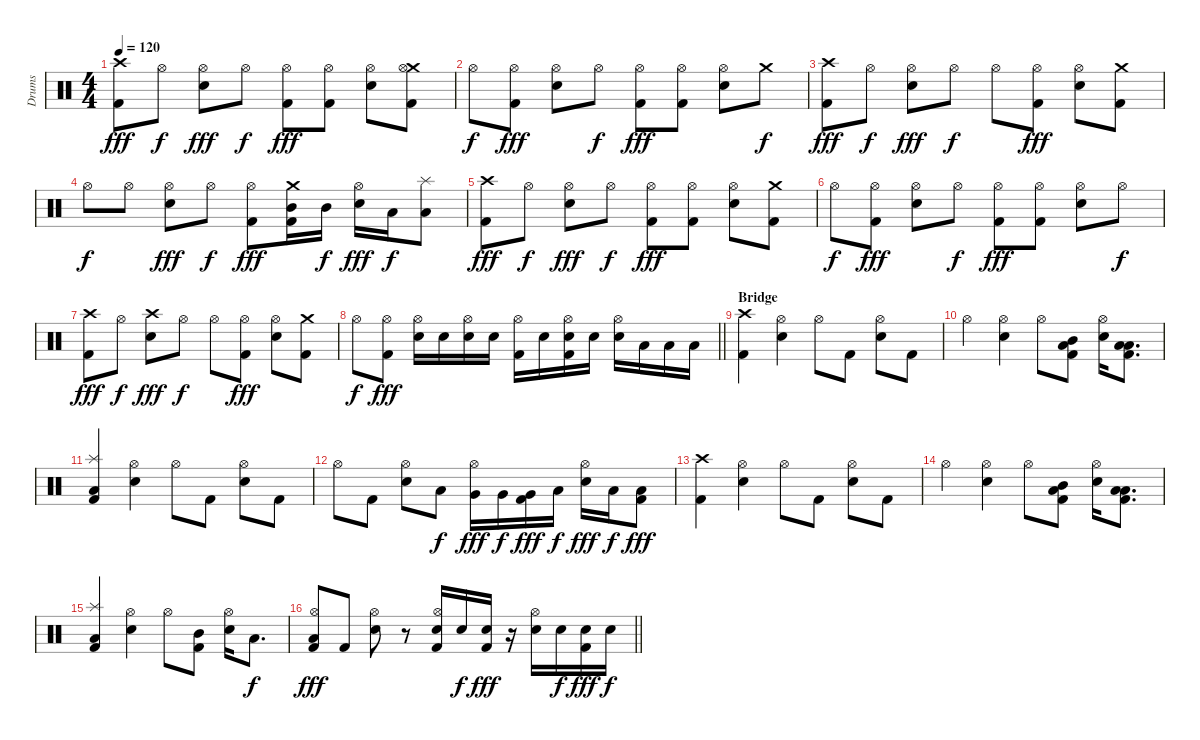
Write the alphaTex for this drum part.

\track ("Drums" "Drums") {instrument percussion}
\staff {score}
\articulation defaults
\ts (4 4)
\tempo 120
\clef neutral
\ks c
("Crash high (hit)" "Kick (hit) 2").8{dy fff} "Hi-Hat (open)".8{dy f} ("Hi-Hat (open)" "Snare (hit) 2").8{dy fff} "Hi-Hat (open)".8{dy f} ("Hi-Hat (open)" "Kick (hit) 2").8{dy fff} ("Hi-Hat (open)" "Kick (hit) 2").8 ("Hi-Hat (open)" "Snare (hit) 2").8 ("Crash medium (hit)" "Hi-Hat (open)" "Kick (hit) 2").8 |
"Hi-Hat (open)".8{dy f} ("Hi-Hat (open)" "Kick (hit) 2").8{dy fff} ("Hi-Hat (open)" "Snare (hit) 2").8 "Hi-Hat (open)".8{dy f} ("Hi-Hat (open)" "Kick (hit) 2").8{dy fff} ("Hi-Hat (open)" "Kick (hit) 2").8 ("Hi-Hat (open)" "Snare (hit) 2").8 "Crash medium (hit)".8{dy f} |
("Crash high (hit)" "Kick (hit) 2").8{dy fff} "Hi-Hat (open)".8{dy f} ("Hi-Hat (open)" "Snare (hit) 2").8{dy fff} "Hi-Hat (open)".8{dy f} "Hi-Hat (open)".8 ("Hi-Hat (open)" "Kick (hit) 2").8{dy fff} ("Hi-Hat (open)" "Snare (hit) 2").8 ("Crash medium (hit)" "Kick (hit) 2").8 |
"Hi-Hat (open)".8{dy f} "Hi-Hat (open)".8 ("Hi-Hat (open)" "Snare (hit) 2").8{dy fff} "Hi-Hat (open)".8{dy f} ("Hi-Hat (open)" "Kick (hit) 2").8{dy fff} ("Crash medium (hit)" "Mid Tom (hit)" "Kick (hit) 2").16 "Mid Tom (hit)".16{dy f} ("Hi-Hat (open)" "Snare (hit) 2").16{dy fff} "Low Tom (hit)".16{dy f} ("Splash (hit)" "Low Tom (hit)").8 |
("Crash high (hit)" "Kick (hit) 2").8{dy fff} "Hi-Hat (open)".8{dy f} ("Hi-Hat (open)" "Snare (hit) 2").8{dy fff} "Hi-Hat (open)".8{dy f} ("Hi-Hat (open)" "Kick (hit) 2").8{dy fff} ("Hi-Hat (open)" "Kick (hit) 2").8 ("Hi-Hat (open)" "Snare (hit) 2").8 ("Crash medium (hit)" "Kick (hit) 2").8 |
"Hi-Hat (open)".8{dy f} ("Hi-Hat (open)" "Kick (hit) 2").8{dy fff} ("Hi-Hat (open)" "Snare (hit) 2").8 "Hi-Hat (open)".8{dy f} ("Hi-Hat (open)" "Kick (hit) 2").8{dy fff} ("Hi-Hat (open)" "Kick (hit) 2").8 ("Hi-Hat (open)" "Snare (hit) 2").8 "Hi-Hat (open)".8{dy f} |
("Crash high (hit)" "Kick (hit) 2").8{dy fff} "Hi-Hat (open)".8{dy f} ("Crash high (hit)" "Snare (hit) 2").8{dy fff} "Hi-Hat (open)".8{dy f} "Hi-Hat (open)".8 ("Hi-Hat (open)" "Kick (hit) 2").8{dy fff} ("Hi-Hat (open)" "Snare (hit) 2").8 ("Crash medium (hit)" "Kick (hit) 2").8 |
\barLineRight lightlight "Hi-Hat (open)".8{dy f}
("Hi-Hat (open)" "Kick (hit) 2").8{dy fff} ("Hi-Hat (open)" "Snare (hit) 2").16 "Snare (hit) 2".16 ("Hi-Hat (open)" "Snare (hit) 2").16 "Snare (hit) 2".16 ("Hi-Hat (open)" "Kick (hit) 2").16 "Snare (hit) 2".16 ("Hi-Hat (open)" "Snare (hit) 2" "Kick (hit) 2").16 "Snare (hit) 2".16 ("Hi-Hat (open)" "Snare (hit) 2").16 "Low Tom (hit)".16 "Low Tom (hit)".16 "Low Floor Tom (hit)".16 |
\section ("" "Bridge")
("Crash high (hit)" "Kick (hit) 2").4 ("Hi-Hat (open)" "Snare (hit) 2").4 "Hi-Hat (open)".8 "Kick (hit) 2".8 ("Hi-Hat (open)" "Snare (hit) 2").8 "Kick (hit) 2".8 |
"Hi-Hat (open)".4 ("Hi-Hat (open)" "Snare (hit) 2").4 "Hi-Hat (open)".8 ("Mid Tom (hit)" "Low Floor Tom (hit)" "Kick (hit) 2").8 ("Hi-Hat (open)" "Snare (hit) 2").16 ("Low Tom (hit)" "Low Floor Tom (hit)" "Kick (hit) 2").8{d} |
("Splash (hit)" "Low Floor Tom (hit)" "Kick (hit) 2").4 ("Hi-Hat (open)" "Snare (hit) 2").4 "Hi-Hat (open)".8 "Kick (hit) 2".8 ("Hi-Hat (open)" "Snare (hit) 2").8 "Kick (hit) 2".8 |
"Hi-Hat (open)".8 "Kick (hit) 2".8 ("Hi-Hat (open)" "Snare (hit) 2").8 "Low Tom (hit)".8{dy f} ("Hi-Hat (open)" "Very Low Tom (hit)").16{dy fff} "Very Low Tom (hit)".16{dy f} ("Very Low Tom (hit)" "Kick (hit) 2").16{dy fff} "Low Floor Tom (hit)".16{dy f} ("Hi-Hat (open)" "Snare (hit) 2").16{dy fff} "Low Floor Tom (hit)".16{dy f} ("Low Floor Tom (hit)" "Kick (hit) 2").8{dy fff} |
("Crash high (hit)" "Kick (hit) 2").4 ("Hi-Hat (open)" "Snare (hit) 2").4 "Hi-Hat (open)".8 "Kick (hit) 2".8 ("Hi-Hat (open)" "Snare (hit) 2").8 "Kick (hit) 2".8 |
"Hi-Hat (open)".4 ("Hi-Hat (open)" "Snare (hit) 2").4 "Hi-Hat (open)".8 ("Mid Tom (hit)" "Low Floor Tom (hit)" "Kick (hit) 2").8 ("Hi-Hat (open)" "Snare (hit) 2").16 ("Low Tom (hit)" "Low Floor Tom (hit)" "Kick (hit) 2").8{d} |
("Splash (hit)" "Low Floor Tom (hit)" "Kick (hit) 2").4 ("Hi-Hat (open)" "Snare (hit) 2").4 "Hi-Hat (open)".8 ("Mid Tom (hit)" "Kick (hit) 2").8 ("Hi-Hat (open)" "Snare (hit) 2").16 "Low Tom (hit)".8{d dy f} |
\barLineRight lightlight
("Hi-Hat (open)" "Low Floor Tom (hit)" "Kick (hit) 2").8{dy fff} "Kick (hit) 2".8 ("Hi-Hat (open)" "Snare (hit) 2").8 r.8 ("Hi-Hat (open)" "Snare (hit) 2" "Kick (hit) 2").16 "Snare (hit) 2".16{dy f} ("Snare (hit) 2" "Kick (hit) 2").16{dy fff} r.16 ("Hi-Hat (open)" "Snare (hit) 2").16 "Snare (hit) 2".16{dy f} ("Snare (hit) 2" "Kick (hit) 2").16{dy fff} "Snare (hit) 2".16{dy f}
